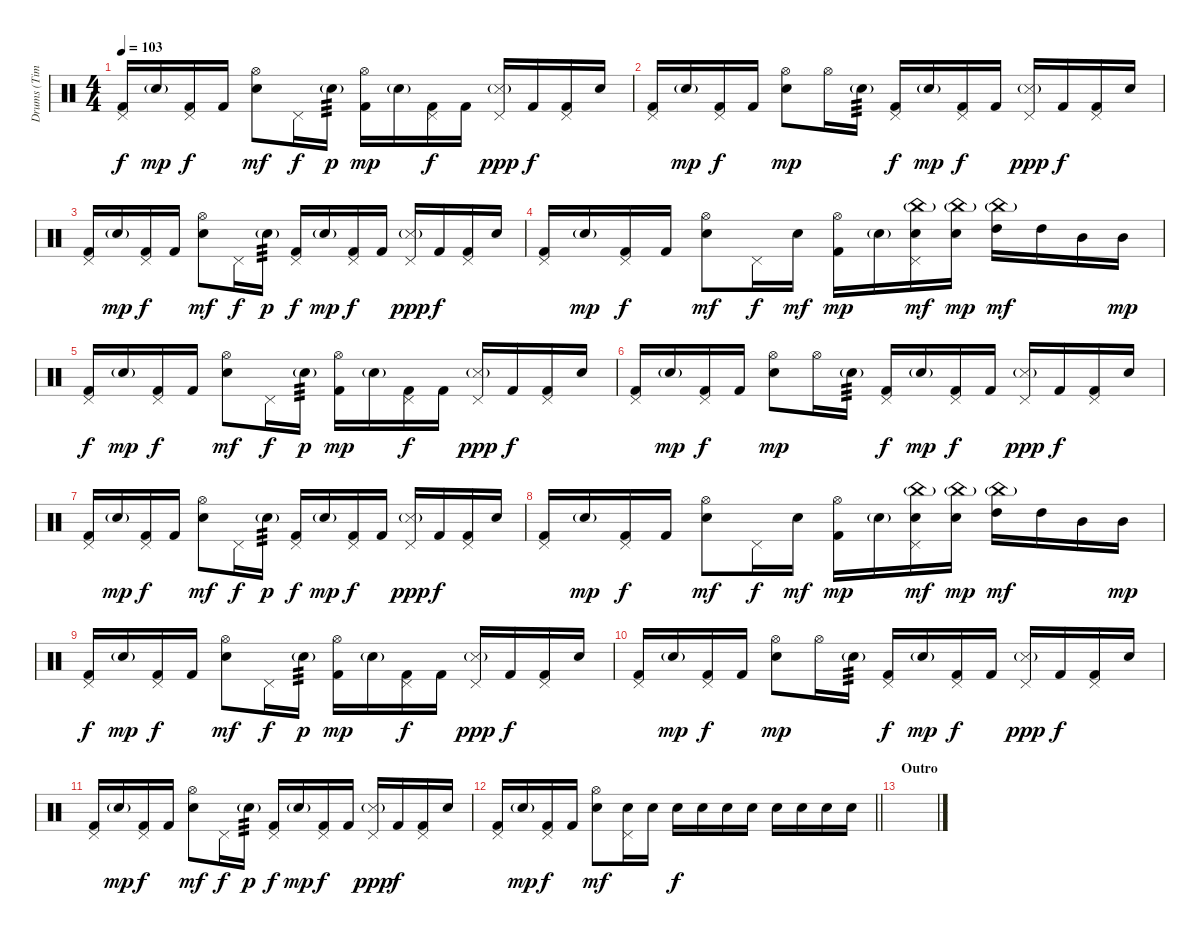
\track ("Drums (Tim Alexander)" "Drums (Tim") {instrument percussion}
\staff {score}
\articulation defaults
\ts (4 4)
\tempo 103
\clef neutral
\ks c
("Pedal Hi-Hat (hit)" "Kick (hit) 2").16{dy f} "Electric Snare (hit)"{g}.16{dy mp} ("Pedal Hi-Hat (hit)" "Kick (hit) 2").16{dy f} "Kick (hit) 2".16 ("Hi-Hat (open)" "Electric Snare (hit)").8{dy mf} "Pedal Hi-Hat (hit)".16{dy f} "Electric Snare (hit)"{g}.16{tp 3 dy p} ("Hi-Hat (open)" "Kick (hit) 2").16{dy mp} "Electric Snare (hit)"{g}.16 ("Pedal Hi-Hat (hit)" "Kick (hit) 2").16{dy f} "Kick (hit) 2".16 ("Pedal Hi-Hat (hit)" "Snare (side stick) 3"{g}).16{dy ppp} "Kick (hit) 2".16{dy f} ("Pedal Hi-Hat (hit)" "Kick (hit) 2").16 "Electric Snare (hit)".16 |
("Pedal Hi-Hat (hit)" "Kick (hit) 2").16 "Electric Snare (hit)"{g}.16{dy mp} ("Pedal Hi-Hat (hit)" "Kick (hit) 2").16{dy f} "Kick (hit) 2".16 ("Hi-Hat (open)" "Electric Snare (hit)").8{dy mp} "Hi-Hat (open)".16 "Electric Snare (hit)"{g}.16{tp 3} ("Pedal Hi-Hat (hit)" "Kick (hit) 2").16{dy f} "Electric Snare (hit)"{g}.16{dy mp} ("Pedal Hi-Hat (hit)" "Kick (hit) 2").16{dy f} "Kick (hit) 2".16 ("Pedal Hi-Hat (hit)" "Snare (side stick) 3"{g}).16{dy ppp} "Kick (hit) 2".16{dy f} ("Pedal Hi-Hat (hit)" "Kick (hit) 2").16 "Electric Snare (hit)".16 |
("Pedal Hi-Hat (hit)" "Kick (hit) 2").16 "Electric Snare (hit)"{g}.16{dy mp} ("Pedal Hi-Hat (hit)" "Kick (hit) 2").16{dy f} "Kick (hit) 2".16 ("Hi-Hat (open)" "Electric Snare (hit)").8{dy mf} "Pedal Hi-Hat (hit)".16{dy f} "Electric Snare (hit)"{g}.16{tp 3 dy p} ("Pedal Hi-Hat (hit)" "Kick (hit) 2").16{dy f} "Electric Snare (hit)"{g}.16{dy mp} ("Pedal Hi-Hat (hit)" "Kick (hit) 2").16{dy f} "Kick (hit) 2".16 ("Pedal Hi-Hat (hit)" "Snare (side stick) 3"{g}).16{dy ppp} "Kick (hit) 2".16{dy f} ("Pedal Hi-Hat (hit)" "Kick (hit) 2").16 "Electric Snare (hit)".16 |
("Pedal Hi-Hat (hit)" "Kick (hit) 2").16 "Electric Snare (hit)"{g}.16{dy mp} ("Pedal Hi-Hat (hit)" "Kick (hit) 2").16{dy f} "Kick (hit) 2".16 ("Hi-Hat (open)" "Electric Snare (hit)").8{dy mf} "Pedal Hi-Hat (hit)".16{dy f} "Electric Snare (hit)".16{dy mf} ("Hi-Hat (open)" "Kick (hit) 2").16{dy mp} "Electric Snare (hit)"{g}.16 ("China (hit)"{g} "Pedal Hi-Hat (hit)" "Electric Snare (hit)").16{dy mf} ("China (hit)"{g} "Electric Snare (hit)").16{dy mp} ("China (hit)"{g} "High Tom (hit)").16{dy mf} "High Tom (hit)".16 "Mid Tom (hit)".16 "Mid Tom (hit)".16{dy mp} |
("Pedal Hi-Hat (hit)" "Kick (hit) 2").16{dy f} "Electric Snare (hit)"{g}.16{dy mp} ("Pedal Hi-Hat (hit)" "Kick (hit) 2").16{dy f} "Kick (hit) 2".16 ("Hi-Hat (open)" "Electric Snare (hit)").8{dy mf} "Pedal Hi-Hat (hit)".16{dy f} "Electric Snare (hit)"{g}.16{tp 3 dy p} ("Hi-Hat (open)" "Kick (hit) 2").16{dy mp} "Electric Snare (hit)"{g}.16 ("Pedal Hi-Hat (hit)" "Kick (hit) 2").16{dy f} "Kick (hit) 2".16 ("Pedal Hi-Hat (hit)" "Snare (side stick) 3"{g}).16{dy ppp} "Kick (hit) 2".16{dy f} ("Pedal Hi-Hat (hit)" "Kick (hit) 2").16 "Electric Snare (hit)".16 |
("Pedal Hi-Hat (hit)" "Kick (hit) 2").16 "Electric Snare (hit)"{g}.16{dy mp} ("Pedal Hi-Hat (hit)" "Kick (hit) 2").16{dy f} "Kick (hit) 2".16 ("Hi-Hat (open)" "Electric Snare (hit)").8{dy mp} "Hi-Hat (open)".16 "Electric Snare (hit)"{g}.16{tp 3} ("Pedal Hi-Hat (hit)" "Kick (hit) 2").16{dy f} "Electric Snare (hit)"{g}.16{dy mp} ("Pedal Hi-Hat (hit)" "Kick (hit) 2").16{dy f} "Kick (hit) 2".16 ("Pedal Hi-Hat (hit)" "Snare (side stick) 3"{g}).16{dy ppp} "Kick (hit) 2".16{dy f} ("Pedal Hi-Hat (hit)" "Kick (hit) 2").16 "Electric Snare (hit)".16 |
("Pedal Hi-Hat (hit)" "Kick (hit) 2").16 "Electric Snare (hit)"{g}.16{dy mp} ("Pedal Hi-Hat (hit)" "Kick (hit) 2").16{dy f} "Kick (hit) 2".16 ("Hi-Hat (open)" "Electric Snare (hit)").8{dy mf} "Pedal Hi-Hat (hit)".16{dy f} "Electric Snare (hit)"{g}.16{tp 3 dy p} ("Pedal Hi-Hat (hit)" "Kick (hit) 2").16{dy f} "Electric Snare (hit)"{g}.16{dy mp} ("Pedal Hi-Hat (hit)" "Kick (hit) 2").16{dy f} "Kick (hit) 2".16 ("Pedal Hi-Hat (hit)" "Snare (side stick) 3"{g}).16{dy ppp} "Kick (hit) 2".16{dy f} ("Pedal Hi-Hat (hit)" "Kick (hit) 2").16 "Electric Snare (hit)".16 |
("Pedal Hi-Hat (hit)" "Kick (hit) 2").16 "Electric Snare (hit)"{g}.16{dy mp} ("Pedal Hi-Hat (hit)" "Kick (hit) 2").16{dy f} "Kick (hit) 2".16 ("Hi-Hat (open)" "Electric Snare (hit)").8{dy mf} "Pedal Hi-Hat (hit)".16{dy f} "Electric Snare (hit)".16{dy mf} ("Hi-Hat (open)" "Kick (hit) 2").16{dy mp} "Electric Snare (hit)"{g}.16 ("China (hit)"{g} "Pedal Hi-Hat (hit)" "Electric Snare (hit)").16{dy mf} ("China (hit)"{g} "Electric Snare (hit)").16{dy mp} ("China (hit)"{g} "High Tom (hit)").16{dy mf} "High Tom (hit)".16 "Mid Tom (hit)".16 "Mid Tom (hit)".16{dy mp} |
("Pedal Hi-Hat (hit)" "Kick (hit) 2").16{dy f} "Electric Snare (hit)"{g}.16{dy mp} ("Pedal Hi-Hat (hit)" "Kick (hit) 2").16{dy f} "Kick (hit) 2".16 ("Hi-Hat (open)" "Electric Snare (hit)").8{dy mf} "Pedal Hi-Hat (hit)".16{dy f} "Electric Snare (hit)"{g}.16{tp 3 dy p} ("Hi-Hat (open)" "Kick (hit) 2").16{dy mp} "Electric Snare (hit)"{g}.16 ("Pedal Hi-Hat (hit)" "Kick (hit) 2").16{dy f} "Kick (hit) 2".16 ("Pedal Hi-Hat (hit)" "Snare (side stick) 3"{g}).16{dy ppp} "Kick (hit) 2".16{dy f} ("Pedal Hi-Hat (hit)" "Kick (hit) 2").16 "Electric Snare (hit)".16 |
("Pedal Hi-Hat (hit)" "Kick (hit) 2").16 "Electric Snare (hit)"{g}.16{dy mp} ("Pedal Hi-Hat (hit)" "Kick (hit) 2").16{dy f} "Kick (hit) 2".16 ("Hi-Hat (open)" "Electric Snare (hit)").8{dy mp} "Hi-Hat (open)".16 "Electric Snare (hit)"{g}.16{tp 3} ("Pedal Hi-Hat (hit)" "Kick (hit) 2").16{dy f} "Electric Snare (hit)"{g}.16{dy mp} ("Pedal Hi-Hat (hit)" "Kick (hit) 2").16{dy f} "Kick (hit) 2".16 ("Pedal Hi-Hat (hit)" "Snare (side stick) 3"{g}).16{dy ppp} "Kick (hit) 2".16{dy f} ("Pedal Hi-Hat (hit)" "Kick (hit) 2").16 "Electric Snare (hit)".16 |
("Pedal Hi-Hat (hit)" "Kick (hit) 2").16 "Electric Snare (hit)"{g}.16{dy mp} ("Pedal Hi-Hat (hit)" "Kick (hit) 2").16{dy f} "Kick (hit) 2".16 ("Hi-Hat (open)" "Electric Snare (hit)").8{dy mf} "Pedal Hi-Hat (hit)".16{dy f} "Electric Snare (hit)"{g}.16{tp 3 dy p} ("Pedal Hi-Hat (hit)" "Kick (hit) 2").16{dy f} "Electric Snare (hit)"{g}.16{dy mp} ("Pedal Hi-Hat (hit)" "Kick (hit) 2").16{dy f} "Kick (hit) 2".16 ("Pedal Hi-Hat (hit)" "Snare (side stick) 3"{g}).16{dy ppp} "Kick (hit) 2".16{dy f} ("Pedal Hi-Hat (hit)" "Kick (hit) 2").16 "Electric Snare (hit)".16 |
\barLineRight lightlight
("Pedal Hi-Hat (hit)" "Kick (hit) 2").16 "Electric Snare (hit)"{g}.16{dy mp} ("Pedal Hi-Hat (hit)" "Kick (hit) 2").16{dy f} "Kick (hit) 2".16 ("Hi-Hat (open)" "Electric Snare (hit)").8{dy mf} ("Pedal Hi-Hat (hit)" "Electric Snare (hit)").16 "Electric Snare (hit)".16 "Electric Snare (hit)".16{dy f} "Electric Snare (hit)".16 "Electric Snare (hit)".16 "Electric Snare (hit)".16 "Electric Snare (hit)".16 "Electric Snare (hit)".16 "Electric Snare (hit)".16 "Electric Snare (hit)".16 |
\section ("" "Outro")
